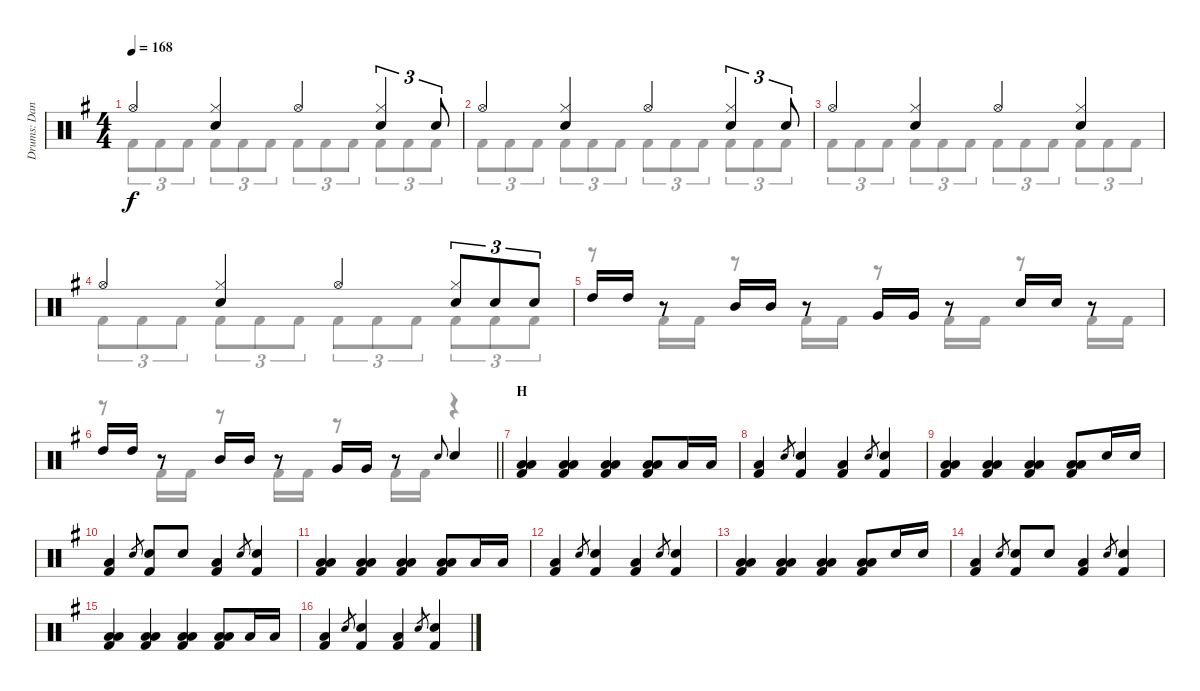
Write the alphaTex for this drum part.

\track ("Drums: Dana" "Drums: Dan") {instrument percussion}
\staff {score}
\articulation defaults
\voice
\ts (4 4)
\tempo 168
\clef neutral
\ks g "Hi-Hat (open)".4{dy f}
("Hi-Hat (closed)" "Snare (hit) 2").4 "Hi-Hat (open)".4 ("Hi-Hat (closed)" "Snare (hit) 2").4{tu (3 2)} "Snare (hit) 2".8{tu (3 2)} |
"Hi-Hat (open)".4 ("Hi-Hat (closed)" "Snare (hit) 2").4 "Hi-Hat (open)".4 ("Hi-Hat (closed)" "Snare (hit) 2").4{tu (3 2)} "Snare (hit) 2".8{tu (3 2)} |
"Hi-Hat (open)".4 ("Hi-Hat (closed)" "Snare (hit) 2").4 "Hi-Hat (open)".4 ("Hi-Hat (closed)" "Snare (hit) 2").4 |
"Hi-Hat (open)".4 ("Hi-Hat (closed)" "Snare (hit) 2").4 "Hi-Hat (open)".4 ("Hi-Hat (closed)" "Snare (hit) 2").8{tu (3 2)} "Snare (hit) 2".8{tu (3 2)} "Snare (hit) 2".8{tu (3 2)} |
"High Tom (hit)".16 "High Tom (hit)".16 r.8 "Mid Tom (hit)".16 "Mid Tom (hit)".16 r.8 "Very Low Tom (hit)".16 "Very Low Tom (hit)".16 r.8 "Snare (hit) 2".16 "Snare (hit) 2".16 r.8 |
\barLineRight lightlight "High Tom (hit)".16 "High Tom (hit)".16
r.8 "Mid Tom (hit)".16 "Mid Tom (hit)".16 r.8 "Very Low Tom (hit)".16 "Very Low Tom (hit)".16 r.8 "Electric Snare (hit)".8{gr onbeat} "Snare (hit) 2".4 |
\section ("" "H")
("Low Tom (hit)" "Low Floor Tom (hit)" "Kick (hit) 2").4 ("Low Tom (hit)" "Low Floor Tom (hit)" "Kick (hit) 2").4 ("Low Tom (hit)" "Low Floor Tom (hit)" "Kick (hit) 2").4 ("Low Tom (hit)" "Low Floor Tom (hit)" "Kick (hit) 2").8 "Low Tom (hit)".16 "Low Floor Tom (hit)".16 |
("Low Floor Tom (hit)" "Kick (hit) 2").4 "Electric Snare (hit)".8{gr} ("Electric Snare (hit)" "Kick (hit) 2").4 ("Low Floor Tom (hit)" "Kick (hit) 2").4 "Electric Snare (hit)".8{gr} ("Electric Snare (hit)" "Kick (hit) 2").4 |
("Low Tom (hit)" "Low Floor Tom (hit)" "Kick (hit) 2").4 ("Low Tom (hit)" "Low Floor Tom (hit)" "Kick (hit) 2").4 ("Low Tom (hit)" "Low Floor Tom (hit)" "Kick (hit) 2").4 ("Low Tom (hit)" "Low Floor Tom (hit)" "Kick (hit) 2").8 "Electric Snare (hit)".16 "Electric Snare (hit)".16 |
("Low Floor Tom (hit)" "Kick (hit) 2").4 "Electric Snare (hit)".8{gr} ("Electric Snare (hit)" "Kick (hit) 2").8 "Electric Snare (hit)".8 ("Low Floor Tom (hit)" "Kick (hit) 2").4 "Electric Snare (hit)".8{gr} ("Electric Snare (hit)" "Kick (hit) 2").4 |
("Low Tom (hit)" "Low Floor Tom (hit)" "Kick (hit) 2").4 ("Low Tom (hit)" "Low Floor Tom (hit)" "Kick (hit) 2").4 ("Low Tom (hit)" "Low Floor Tom (hit)" "Kick (hit) 2").4 ("Low Tom (hit)" "Low Floor Tom (hit)" "Kick (hit) 2").8 "Low Tom (hit)".16 "Low Floor Tom (hit)".16 |
("Low Floor Tom (hit)" "Kick (hit) 2").4 "Electric Snare (hit)".8{gr} ("Electric Snare (hit)" "Kick (hit) 2").4 ("Low Floor Tom (hit)" "Kick (hit) 2").4 "Electric Snare (hit)".8{gr} ("Electric Snare (hit)" "Kick (hit) 2").4 |
("Low Tom (hit)" "Low Floor Tom (hit)" "Kick (hit) 2").4 ("Low Tom (hit)" "Low Floor Tom (hit)" "Kick (hit) 2").4 ("Low Tom (hit)" "Low Floor Tom (hit)" "Kick (hit) 2").4 ("Low Tom (hit)" "Low Floor Tom (hit)" "Kick (hit) 2").8 "Electric Snare (hit)".16 "Electric Snare (hit)".16 |
("Low Floor Tom (hit)" "Kick (hit) 2").4 "Electric Snare (hit)".8{gr} ("Electric Snare (hit)" "Kick (hit) 2").8 "Electric Snare (hit)".8 ("Low Floor Tom (hit)" "Kick (hit) 2").4 "Electric Snare (hit)".8{gr} ("Electric Snare (hit)" "Kick (hit) 2").4 |
("Low Tom (hit)" "Low Floor Tom (hit)" "Kick (hit) 2").4 ("Low Tom (hit)" "Low Floor Tom (hit)" "Kick (hit) 2").4 ("Low Tom (hit)" "Low Floor Tom (hit)" "Kick (hit) 2").4 ("Low Tom (hit)" "Low Floor Tom (hit)" "Kick (hit) 2").8 "Low Tom (hit)".16 "Low Floor Tom (hit)".16 |
("Low Floor Tom (hit)" "Kick (hit) 2").4 "Electric Snare (hit)".8{gr} ("Electric Snare (hit)" "Kick (hit) 2").4 ("Low Floor Tom (hit)" "Kick (hit) 2").4 "Electric Snare (hit)".8{gr} ("Electric Snare (hit)" "Kick (hit) 2").4
\voice
\clef neutral
\ottava regular
\simile none
\ks g "Kick (hit) 2".8{tu (3 2) dy f} "Kick (hit) 2".8{tu (3 2)} "Kick (hit) 2".8{tu (3 2)} "Kick (hit) 2".8{tu (3 2)} "Kick (hit) 2".8{tu (3 2)} "Kick (hit) 2".8{tu (3 2)} "Kick (hit) 2".8{tu (3 2)} "Kick (hit) 2".8{tu (3 2)} "Kick (hit) 2".8{tu (3 2)} "Kick (hit) 2".8{tu (3 2)} "Kick (hit) 2".8{tu (3 2)} "Kick (hit) 2".8{tu (3 2)}
|
"Kick (hit) 2".8{tu (3 2)} "Kick (hit) 2".8{tu (3 2)} "Kick (hit) 2".8{tu (3 2)} "Kick (hit) 2".8{tu (3 2)} "Kick (hit) 2".8{tu (3 2)} "Kick (hit) 2".8{tu (3 2)} "Kick (hit) 2".8{tu (3 2)} "Kick (hit) 2".8{tu (3 2)} "Kick (hit) 2".8{tu (3 2)} "Kick (hit) 2".8{tu (3 2)} "Kick (hit) 2".8{tu (3 2)} "Kick (hit) 2".8{tu (3 2)} |
"Kick (hit) 2".8{tu (3 2)} "Kick (hit) 2".8{tu (3 2)} "Kick (hit) 2".8{tu (3 2)} "Kick (hit) 2".8{tu (3 2)} "Kick (hit) 2".8{tu (3 2)} "Kick (hit) 2".8{tu (3 2)} "Kick (hit) 2".8{tu (3 2)} "Kick (hit) 2".8{tu (3 2)} "Kick (hit) 2".8{tu (3 2)} "Kick (hit) 2".8{tu (3 2)} "Kick (hit) 2".8{tu (3 2)} "Kick (hit) 2".8{tu (3 2)} |
"Kick (hit) 2".8{tu (3 2)} "Kick (hit) 2".8{tu (3 2)} "Kick (hit) 2".8{tu (3 2)} "Kick (hit) 2".8{tu (3 2)} "Kick (hit) 2".8{tu (3 2)} "Kick (hit) 2".8{tu (3 2)} "Kick (hit) 2".8{tu (3 2)} "Kick (hit) 2".8{tu (3 2)} "Kick (hit) 2".8{tu (3 2)} "Kick (hit) 2".8{tu (3 2)} "Kick (hit) 2".8{tu (3 2)} "Kick (hit) 2".8{tu (3 2)} |
r.8 "Kick (hit) 2".16 "Kick (hit) 2".16 r.8 "Kick (hit) 2".16 "Kick (hit) 2".16 r.8 "Kick (hit) 2".16 "Kick (hit) 2".16 r.8 "Kick (hit) 2".16 "Kick (hit) 2".16 |
\barLineRight lightlight
r.8 "Kick (hit) 2".16 "Kick (hit) 2".16 r.8 "Kick (hit) 2".16 "Kick (hit) 2".16 r.8 "Kick (hit) 2".16 "Kick (hit) 2".16 r.4 |
|
|
|
|
|
|
|
|
|
